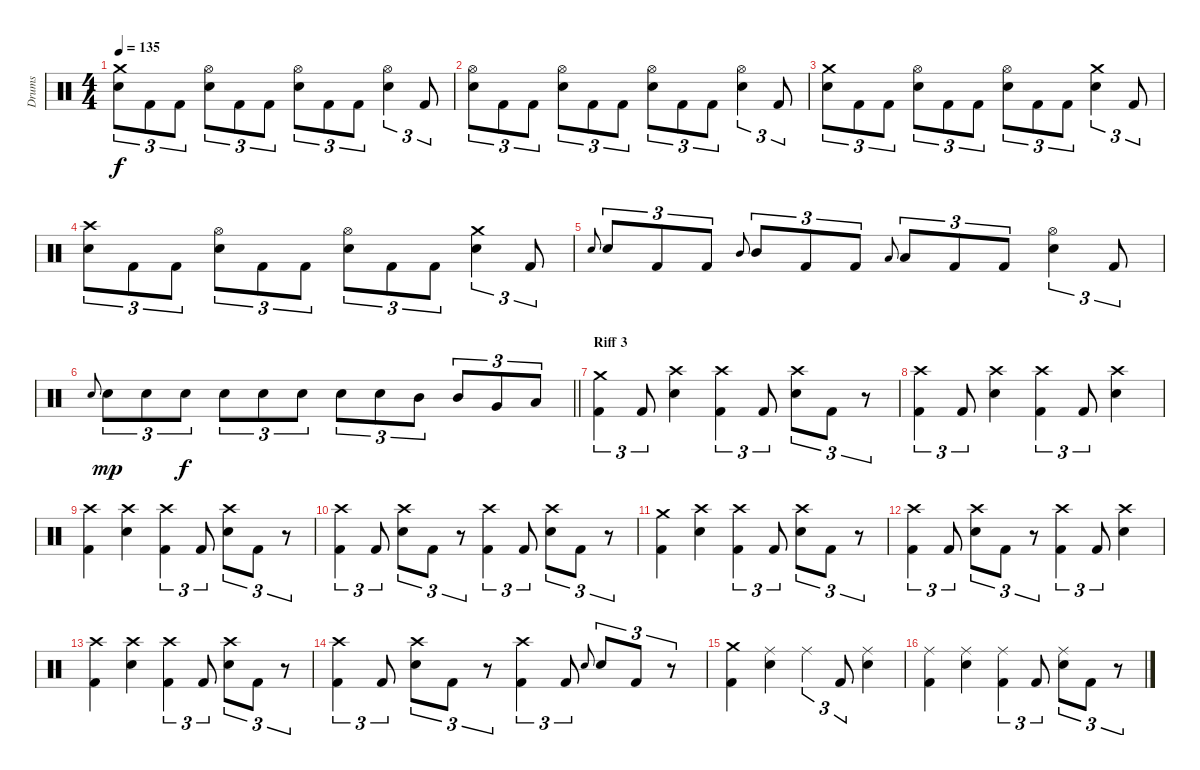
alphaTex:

\track ("Drums" "Drums") {instrument percussion}
\staff {score}
\articulation defaults
\ts (4 4)
\tempo 135
\clef neutral
\ks c
("Crash medium (hit)" "Electric Snare (hit)").8{tu (3 2) dy f} "Kick (hit) 2".8{tu (3 2)} "Kick (hit) 2".8{tu (3 2)} ("Hi-Hat (open)" "Electric Snare (hit)").8{tu (3 2)} "Kick (hit) 2".8{tu (3 2)} "Kick (hit) 2".8{tu (3 2)} ("Hi-Hat (open)" "Electric Snare (hit)").8{tu (3 2)} "Kick (hit) 2".8{tu (3 2)} "Kick (hit) 2".8{tu (3 2)} ("Electric Snare (hit)" "Hi-Hat (open)").4{tu (3 2)} "Kick (hit) 2".8{tu (3 2)} |
("Hi-Hat (open)" "Electric Snare (hit)").8{tu (3 2)} "Kick (hit) 2".8{tu (3 2)} "Kick (hit) 2".8{tu (3 2)} ("Hi-Hat (open)" "Electric Snare (hit)").8{tu (3 2)} "Kick (hit) 2".8{tu (3 2)} "Kick (hit) 2".8{tu (3 2)} ("Hi-Hat (open)" "Electric Snare (hit)").8{tu (3 2)} "Kick (hit) 2".8{tu (3 2)} "Kick (hit) 2".8{tu (3 2)} ("Electric Snare (hit)" "Hi-Hat (open)").4{tu (3 2)} "Kick (hit) 2".8{tu (3 2)} |
("Crash medium (hit)" "Electric Snare (hit)").8{tu (3 2)} "Kick (hit) 2".8{tu (3 2)} "Kick (hit) 2".8{tu (3 2)} ("Hi-Hat (open)" "Electric Snare (hit)").8{tu (3 2)} "Kick (hit) 2".8{tu (3 2)} "Kick (hit) 2".8{tu (3 2)} ("Hi-Hat (open)" "Electric Snare (hit)").8{tu (3 2)} "Kick (hit) 2".8{tu (3 2)} "Kick (hit) 2".8{tu (3 2)} ("Electric Snare (hit)" "Crash medium (hit)").4{tu (3 2)} "Kick (hit) 2".8{tu (3 2)} |
("Crash high (hit)" "Electric Snare (hit)").8{tu (3 2)} "Kick (hit) 2".8{tu (3 2)} "Kick (hit) 2".8{tu (3 2)} ("Hi-Hat (open)" "Electric Snare (hit)").8{tu (3 2)} "Kick (hit) 2".8{tu (3 2)} "Kick (hit) 2".8{tu (3 2)} ("Hi-Hat (open)" "Electric Snare (hit)").8{tu (3 2)} "Kick (hit) 2".8{tu (3 2)} "Kick (hit) 2".8{tu (3 2)} ("Electric Snare (hit)" "Crash medium (hit)").4{tu (3 2)} "Kick (hit) 2".8{tu (3 2)} |
"Electric Snare (hit)".8{gr onbeat} "Electric Snare (hit)".8{tu (3 2)} "Kick (hit) 2".8{tu (3 2)} "Kick (hit) 2".8{tu (3 2)} "Mid Tom (hit)".8{gr onbeat} "Mid Tom (hit)".8{tu (3 2)} "Kick (hit) 2".8{tu (3 2)} "Kick (hit) 2".8{tu (3 2)} "Low Tom (hit)".8{gr onbeat} "Low Tom (hit)".8{tu (3 2)} "Kick (hit) 2".8{tu (3 2)} "Kick (hit) 2".8{tu (3 2)} ("Electric Snare (hit)" "Hi-Hat (open)").4{tu (3 2)} "Kick (hit) 2".8{tu (3 2)} |
\barLineRight lightlight "Electric Snare (hit)".8{gr onbeat} "Electric Snare (hit)".8{tu (3 2) dy mp} "Electric Snare (hit)".8{tu (3 2)} "Electric Snare (hit)".8{tu (3 2) dy f} "Electric Snare (hit)".8{tu (3 2)} "Electric Snare (hit)".8{tu (3 2)} "Electric Snare (hit)".8{tu (3 2)} "Electric Snare (hit)".8{tu (3 2)} "Electric Snare (hit)".8{tu (3 2)} "Mid Tom (hit)".8{tu (3 2)} "Mid Tom (hit)".8{tu (3 2)} "Very Low Tom (hit)".8{tu (3 2)} "Low Floor Tom (hit)".8{tu (3 2)}
|
\section ("" "Riff 3")
("Crash medium (hit)" "Kick (hit) 2").4{tu (3 2)} "Kick (hit) 2".8{tu (3 2)} ("Crash high (hit)" "Electric Snare (hit)").4 ("Crash high (hit)" "Kick (hit) 2").4{tu (3 2)} "Kick (hit) 2".8{tu (3 2)} ("Crash high (hit)" "Electric Snare (hit)").8{tu (3 2)} "Kick (hit) 2".8{tu (3 2)} r.8{tu (3 2)} |
("Crash high (hit)" "Kick (hit) 2").4{tu (3 2)} "Kick (hit) 2".8{tu (3 2)} ("Crash high (hit)" "Electric Snare (hit)").4 ("Crash high (hit)" "Kick (hit) 2").4{tu (3 2)} "Kick (hit) 2".8{tu (3 2)} ("Crash high (hit)" "Electric Snare (hit)").4 |
("Kick (hit) 2" "Crash high (hit)").4 ("Electric Snare (hit)" "Crash high (hit)").4 ("Crash high (hit)" "Kick (hit) 2").4{tu (3 2)} "Kick (hit) 2".8{tu (3 2)} ("Crash high (hit)" "Electric Snare (hit)").8{tu (3 2)} "Kick (hit) 2".8{tu (3 2)} r.8{tu (3 2)} |
("Crash high (hit)" "Kick (hit) 2").4{tu (3 2)} "Kick (hit) 2".8{tu (3 2)} ("Crash high (hit)" "Electric Snare (hit)").8{tu (3 2)} "Kick (hit) 2".8{tu (3 2)} r.8{tu (3 2)} ("Crash high (hit)" "Kick (hit) 2").4{tu (3 2)} "Kick (hit) 2".8{tu (3 2)} ("Crash high (hit)" "Electric Snare (hit)").8{tu (3 2)} "Kick (hit) 2".8{tu (3 2)} r.8{tu (3 2)} |
("Kick (hit) 2" "Crash medium (hit)").4 ("Electric Snare (hit)" "Crash high (hit)").4 ("Crash high (hit)" "Kick (hit) 2").4{tu (3 2)} "Kick (hit) 2".8{tu (3 2)} ("Crash high (hit)" "Electric Snare (hit)").8{tu (3 2)} "Kick (hit) 2".8{tu (3 2)} r.8{tu (3 2)} |
("Crash high (hit)" "Kick (hit) 2").4{tu (3 2)} "Kick (hit) 2".8{tu (3 2)} ("Crash high (hit)" "Electric Snare (hit)").8{tu (3 2)} "Kick (hit) 2".8{tu (3 2)} r.8{tu (3 2)} ("Crash high (hit)" "Kick (hit) 2").4{tu (3 2)} "Kick (hit) 2".8{tu (3 2)} ("Crash high (hit)" "Electric Snare (hit)").4 |
("Kick (hit) 2" "Crash high (hit)").4 ("Electric Snare (hit)" "Crash high (hit)").4 ("Crash high (hit)" "Kick (hit) 2").4{tu (3 2)} "Kick (hit) 2".8{tu (3 2)} ("Crash high (hit)" "Electric Snare (hit)").8{tu (3 2)} "Kick (hit) 2".8{tu (3 2)} r.8{tu (3 2)} |
("Crash high (hit)" "Kick (hit) 2").4{tu (3 2)} "Kick (hit) 2".8{tu (3 2)} ("Crash high (hit)" "Electric Snare (hit)").8{tu (3 2)} "Kick (hit) 2".8{tu (3 2)} r.8{tu (3 2)} ("Crash high (hit)" "Kick (hit) 2").4{tu (3 2)} "Kick (hit) 2".8{tu (3 2)} "Electric Snare (hit)".8{gr onbeat} "Electric Snare (hit)".8{tu (3 2)} "Kick (hit) 2".8{tu (3 2)} r.8{tu (3 2)} |
("Crash medium (hit)" "Kick (hit) 2").4 ("Ride (middle)" "Electric Snare (hit)").4 "Ride (middle)".4{tu (3 2)} "Kick (hit) 2".8{tu (3 2)} ("Ride (middle)" "Electric Snare (hit)").4 |
("Ride (middle)" "Kick (hit) 2").4 ("Ride (middle)" "Electric Snare (hit)").4 ("Kick (hit) 2" "Ride (middle)").4{tu (3 2)} "Kick (hit) 2".8{tu (3 2)} ("Electric Snare (hit)" "Ride (middle)").8{tu (3 2)} "Kick (hit) 2".8{tu (3 2)} r.8{tu (3 2)}
